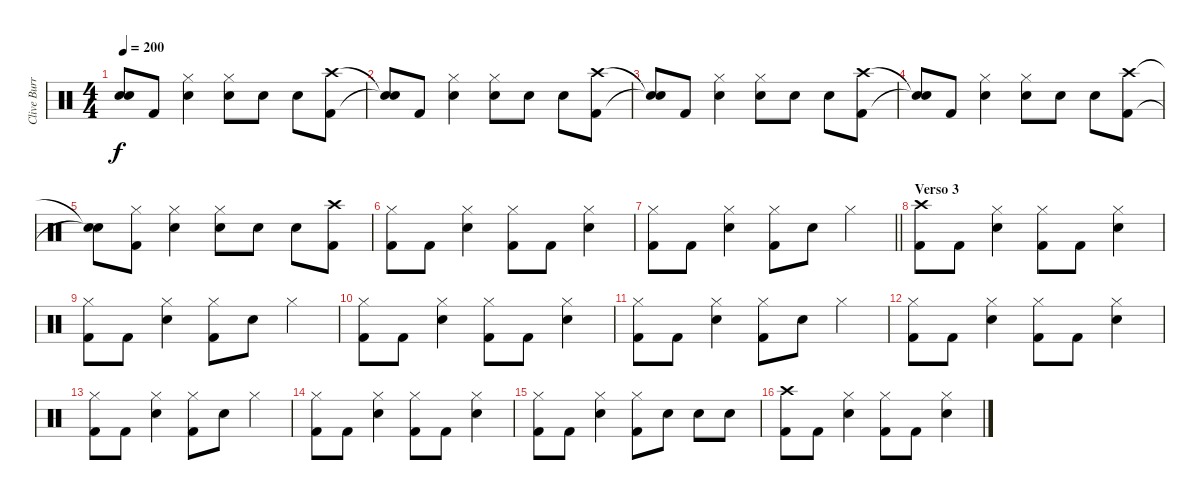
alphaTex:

\track ("Clive Burr" "Clive Burr") {instrument percussion}
\staff {score}
\articulation defaults
\ts (4 4)
\tempo 200
\clef neutral
\ks c
("Snare (hit)"{t} "Snare (hit)"{t}).8{dy f} "Kick (hit) 2".8 ("Hi-Hat (closed)" "Snare (hit) 2").4 ("Hi-Hat (closed)" "Snare (hit) 2").8 "Snare (hit) 2".8 "Snare (hit) 2".8 ("Crash high (hit)" "Kick (hit) 2").8 |
("Snare (hit)"{t} "Snare (hit)"{t}).8 "Kick (hit) 2".8 ("Hi-Hat (closed)" "Snare (hit) 2").4 ("Hi-Hat (closed)" "Snare (hit) 2").8 "Snare (hit) 2".8 "Snare (hit) 2".8 ("Crash high (hit)" "Kick (hit) 2").8 |
("Snare (hit)"{t} "Snare (hit)"{t}).8 "Kick (hit) 2".8 ("Hi-Hat (closed)" "Snare (hit) 2").4 ("Hi-Hat (closed)" "Snare (hit) 2").8 "Snare (hit) 2".8 "Snare (hit) 2".8 ("Crash high (hit)" "Kick (hit) 2").8 |
("Snare (hit)"{t} "Snare (hit)"{t}).8 "Kick (hit) 2".8 ("Hi-Hat (closed)" "Snare (hit) 2").4 ("Hi-Hat (closed)" "Snare (hit) 2").8 "Snare (hit) 2".8 "Snare (hit) 2".8 ("Crash high (hit)" "Kick (hit) 2").8 |
("Snare (hit)"{t} "Snare (hit)"{t}).8 ("Hi-Hat (closed)" "Kick (hit) 2").8 ("Hi-Hat (closed)" "Snare (hit) 2").4 ("Hi-Hat (closed)" "Snare (hit) 2").8 "Snare (hit) 2".8 "Snare (hit) 2".8 ("Crash high (hit)" "Kick (hit) 2").8 |
("Hi-Hat (closed)" "Kick (hit) 2").8 "Kick (hit) 2".8 ("Hi-Hat (closed)" "Snare (hit) 2").4 ("Hi-Hat (closed)" "Kick (hit) 2").8 "Kick (hit) 2".8 ("Hi-Hat (closed)" "Snare (hit) 2").4 |
\barLineRight lightlight
("Hi-Hat (closed)" "Kick (hit) 2").8 "Kick (hit) 2".8 ("Hi-Hat (closed)" "Snare (hit) 2").4 ("Hi-Hat (closed)" "Kick (hit) 2").8 "Snare (hit) 2".8 "Hi-Hat (closed)".4 |
\section ("" "Verso 3")
("Crash high (hit)" "Kick (hit) 2").8 "Kick (hit) 2".8 ("Hi-Hat (closed)" "Snare (hit) 2").4 ("Hi-Hat (closed)" "Kick (hit) 2").8 "Kick (hit) 2".8 ("Hi-Hat (closed)" "Snare (hit) 2").4 |
("Hi-Hat (closed)" "Kick (hit) 2").8 "Kick (hit) 2".8 ("Hi-Hat (closed)" "Snare (hit) 2").4 ("Hi-Hat (closed)" "Kick (hit) 2").8 "Snare (hit) 2".8 "Hi-Hat (closed)".4 |
("Hi-Hat (closed)" "Kick (hit) 2").8 "Kick (hit) 2".8 ("Hi-Hat (closed)" "Snare (hit) 2").4 ("Hi-Hat (closed)" "Kick (hit) 2").8 "Kick (hit) 2".8 ("Hi-Hat (closed)" "Snare (hit) 2").4 |
("Hi-Hat (closed)" "Kick (hit) 2").8 "Kick (hit) 2".8 ("Hi-Hat (closed)" "Snare (hit) 2").4 ("Hi-Hat (closed)" "Kick (hit) 2").8 "Snare (hit) 2".8 "Hi-Hat (closed)".4 |
("Hi-Hat (closed)" "Kick (hit) 2").8 "Kick (hit) 2".8 ("Hi-Hat (closed)" "Snare (hit) 2").4 ("Hi-Hat (closed)" "Kick (hit) 2").8 "Kick (hit) 2".8 ("Hi-Hat (closed)" "Snare (hit) 2").4 |
("Hi-Hat (closed)" "Kick (hit) 2").8 "Kick (hit) 2".8 ("Hi-Hat (closed)" "Snare (hit) 2").4 ("Hi-Hat (closed)" "Kick (hit) 2").8 "Snare (hit) 2".8 "Hi-Hat (closed)".4 |
("Hi-Hat (closed)" "Kick (hit) 2").8 "Kick (hit) 2".8 ("Hi-Hat (closed)" "Snare (hit) 2").4 ("Hi-Hat (closed)" "Kick (hit) 2").8 "Kick (hit) 2".8 ("Hi-Hat (closed)" "Snare (hit) 2").4 |
("Hi-Hat (closed)" "Kick (hit) 2").8 "Kick (hit) 2".8 ("Hi-Hat (closed)" "Snare (hit) 2").4 ("Hi-Hat (closed)" "Kick (hit) 2").8 "Snare (hit) 2".8 "Snare (hit) 2".8 "Snare (hit) 2".8 |
("Crash high (hit)" "Kick (hit) 2").8 "Kick (hit) 2".8 ("Hi-Hat (closed)" "Snare (hit) 2").4 ("Hi-Hat (closed)" "Kick (hit) 2").8 "Kick (hit) 2".8 ("Hi-Hat (closed)" "Snare (hit) 2").4
